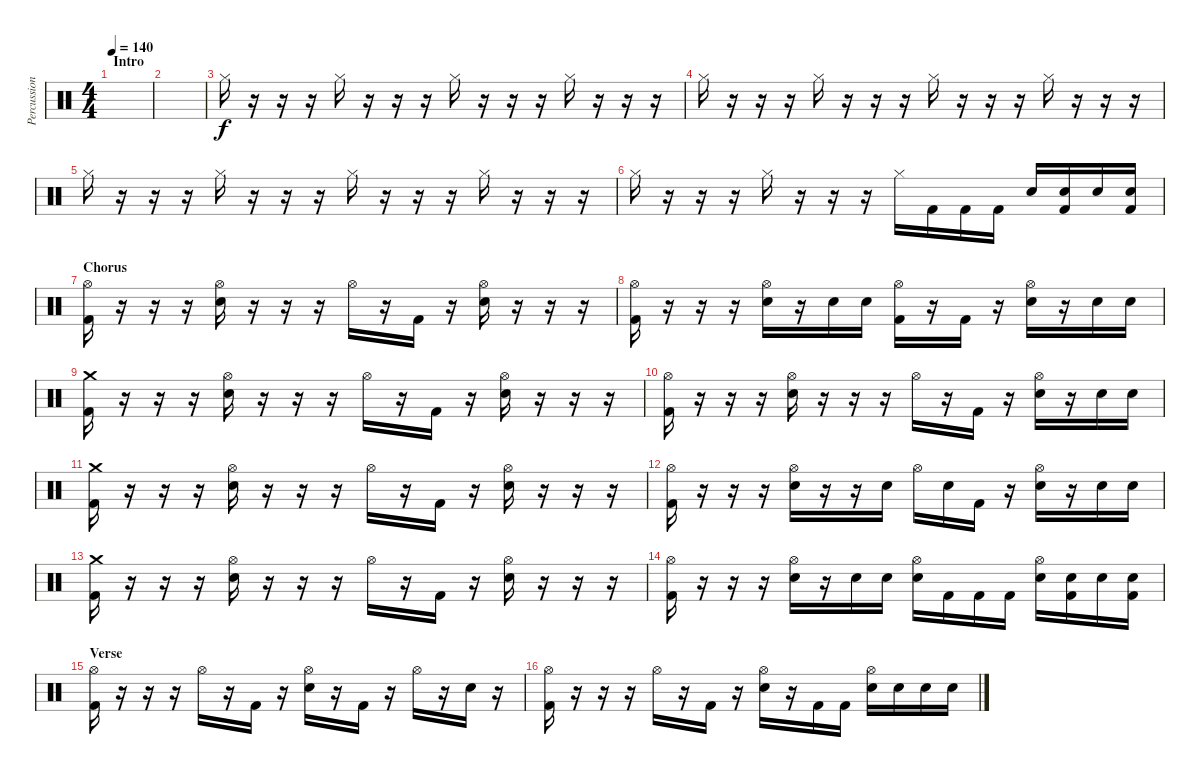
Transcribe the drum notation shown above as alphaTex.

\track ("Percussion" "Percussion") {instrument percussion}
\staff {score}
\articulation defaults
\ts (4 4)
\section ("" "Intro")
\tempo 140
\clef neutral
\ks c
|
|
"Hi-Hat (closed)".16 r.16 r.16 r.16 "Hi-Hat (closed)".16 r.16 r.16 r.16 "Hi-Hat (closed)".16 r.16 r.16 r.16 "Hi-Hat (closed)".16 r.16 r.16 r.16 |
"Hi-Hat (closed)".16 r.16 r.16 r.16 "Hi-Hat (closed)".16 r.16 r.16 r.16 "Hi-Hat (closed)".16 r.16 r.16 r.16 "Hi-Hat (closed)".16 r.16 r.16 r.16 |
"Hi-Hat (closed)".16 r.16 r.16 r.16 "Hi-Hat (closed)".16 r.16 r.16 r.16 "Hi-Hat (closed)".16 r.16 r.16 r.16 "Hi-Hat (closed)".16 r.16 r.16 r.16 |
"Hi-Hat (closed)".16 r.16 r.16 r.16 "Hi-Hat (closed)".16 r.16 r.16 r.16 "Hi-Hat (closed)".16 "Kick (hit) 2".16 "Kick (hit) 2".16 "Kick (hit) 2".16 "Snare (hit) 2".16 ("Kick (hit) 2" "Snare (hit) 2").16 "Snare (hit) 2".16 ("Kick (hit) 2" "Snare (hit) 2").16 |
\section ("" "Chorus")
("Hi-Hat (open)" "Kick (hit) 2").16 r.16 r.16 r.16 ("Hi-Hat (open)" "Snare (hit) 2").16 r.16 r.16 r.16 "Hi-Hat (open)".16 r.16 "Kick (hit) 2".16 r.16 ("Hi-Hat (open)" "Snare (hit) 2").16 r.16 r.16 r.16 |
("Hi-Hat (open)" "Kick (hit) 2").16 r.16 r.16 r.16 ("Hi-Hat (open)" "Snare (hit) 2").16 r.16 "Snare (hit) 2".16 "Snare (hit) 2".16 ("Hi-Hat (open)" "Kick (hit) 2").16 r.16 "Kick (hit) 2".16 r.16 ("Hi-Hat (open)" "Snare (hit) 2").16 r.16 "Snare (hit) 2".16 "Snare (hit) 2".16 |
("Crash medium (hit)" "Kick (hit) 2").16 r.16 r.16 r.16 ("Hi-Hat (open)" "Snare (hit) 2").16 r.16 r.16 r.16 "Hi-Hat (open)".16 r.16 "Kick (hit) 2".16 r.16 ("Hi-Hat (open)" "Snare (hit) 2").16 r.16 r.16 r.16 |
("Hi-Hat (open)" "Kick (hit) 2").16 r.16 r.16 r.16 ("Hi-Hat (open)" "Snare (hit) 2").16 r.16 r.16 r.16 "Hi-Hat (open)".16 r.16 "Kick (hit) 2".16 r.16 ("Hi-Hat (open)" "Snare (hit) 2").16 r.16 "Snare (hit) 2".16 "Snare (hit) 2".16 |
("Crash medium (hit)" "Kick (hit) 2").16 r.16 r.16 r.16 ("Hi-Hat (open)" "Snare (hit) 2").16 r.16 r.16 r.16 "Hi-Hat (open)".16 r.16 "Kick (hit) 2".16 r.16 ("Hi-Hat (open)" "Snare (hit) 2").16 r.16 r.16 r.16 |
("Hi-Hat (open)" "Kick (hit) 2").16 r.16 r.16 r.16 ("Hi-Hat (open)" "Snare (hit) 2").16 r.16 r.16 "Snare (hit) 2".16 "Hi-Hat (open)".16 "Snare (hit) 2".16 "Kick (hit) 2".16 r.16 ("Hi-Hat (open)" "Snare (hit) 2").16 r.16 "Snare (hit) 2".16 "Snare (hit) 2".16 |
("Crash medium (hit)" "Kick (hit) 2").16 r.16 r.16 r.16 ("Hi-Hat (open)" "Snare (hit) 2").16 r.16 r.16 r.16 "Hi-Hat (open)".16 r.16 "Kick (hit) 2".16 r.16 ("Hi-Hat (open)" "Snare (hit) 2").16 r.16 r.16 r.16 |
("Hi-Hat (open)" "Kick (hit) 2").16 r.16 r.16 r.16 ("Hi-Hat (open)" "Snare (hit) 2").16 r.16 "Snare (hit) 2".16 "Snare (hit) 2".16 ("Hi-Hat (open)" "Snare (hit) 2").16 "Kick (hit) 2".16 "Kick (hit) 2".16 "Kick (hit) 2".16 ("Hi-Hat (open)" "Snare (hit) 2").16 ("Snare (hit) 2" "Kick (hit) 2").16 "Snare (hit) 2".16 ("Snare (hit) 2" "Kick (hit) 2").16 |
\section ("" "Verse")
("Hi-Hat (open)" "Kick (hit) 2").16 r.16 r.16 r.16 "Hi-Hat (open)".16 r.16 "Kick (hit) 2".16 r.16 ("Hi-Hat (open)" "Snare (hit) 2").16 r.16 "Kick (hit) 2".16 r.16 "Hi-Hat (open)".16 r.16 "Snare (hit) 2".16 r.16 |
("Hi-Hat (open)" "Kick (hit) 2").16 r.16 r.16 r.16 "Hi-Hat (open)".16 r.16 "Kick (hit) 2".16 r.16 ("Hi-Hat (open)" "Snare (hit) 2").16 r.16 "Kick (hit) 2".16 "Kick (hit) 2".16 ("Hi-Hat (open)" "Snare (hit) 2").16 "Snare (hit) 2".16 "Snare (hit) 2".16 "Snare (hit) 2".16
